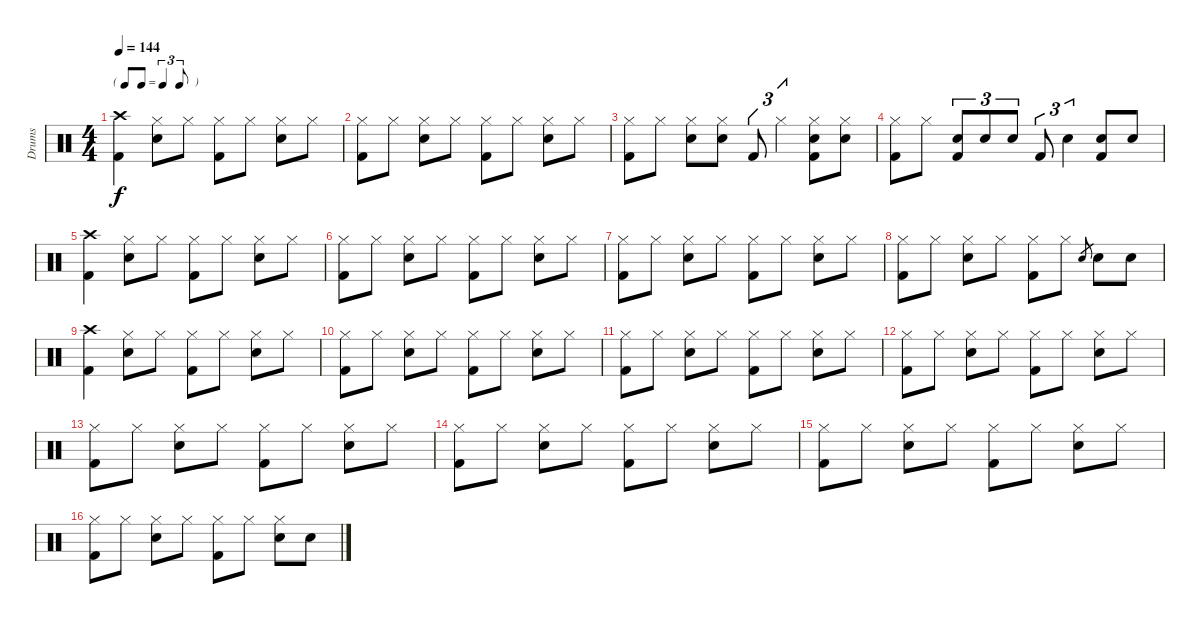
\track ("Drums" "Drums") {instrument percussion}
\staff {score}
\articulation defaults
\ts (4 4)
\tf triplet8th
\tempo 144
\clef neutral
\ks c
("Crash high (hit)" "Kick (hit) 2").4{dy f} ("Hi-Hat (closed)" "Electric Snare (hit)").8 "Hi-Hat (closed)".8 ("Hi-Hat (closed)" "Kick (hit) 2").8 "Hi-Hat (closed)".8 ("Hi-Hat (closed)" "Electric Snare (hit)").8 "Hi-Hat (closed)".8 |
("Hi-Hat (closed)" "Kick (hit) 2").8 "Hi-Hat (closed)".8 ("Hi-Hat (closed)" "Electric Snare (hit)").8 "Hi-Hat (closed)".8 ("Hi-Hat (closed)" "Kick (hit) 2").8 "Hi-Hat (closed)".8 ("Hi-Hat (closed)" "Electric Snare (hit)").8 "Hi-Hat (closed)".8 |
("Hi-Hat (closed)" "Kick (hit) 2").8 "Hi-Hat (closed)".8 ("Hi-Hat (closed)" "Electric Snare (hit)").8 ("Hi-Hat (closed)" "Electric Snare (hit)").8 "Kick (hit) 2".8{tu (3 2)} "Hi-Hat (closed)".4{tu (3 2)} ("Hi-Hat (closed)" "Electric Snare (hit)" "Kick (hit) 2").8 ("Hi-Hat (closed)" "Electric Snare (hit)").8 |
("Hi-Hat (closed)" "Kick (hit) 2").8 "Hi-Hat (closed)".8 ("Electric Snare (hit)" "Kick (hit) 2").8{tu (3 2)} "Electric Snare (hit)".8{tu (3 2)} "Electric Snare (hit)".8{tu (3 2)} "Kick (hit) 2".8{tu (3 2)} "Electric Snare (hit)".4{tu (3 2)} ("Electric Snare (hit)" "Kick (hit) 2").8 "Electric Snare (hit)".8 |
("Crash high (hit)" "Kick (hit) 2").4 ("Hi-Hat (closed)" "Electric Snare (hit)").8 "Hi-Hat (closed)".8 ("Hi-Hat (closed)" "Kick (hit) 2").8 "Hi-Hat (closed)".8 ("Hi-Hat (closed)" "Electric Snare (hit)").8 "Hi-Hat (closed)".8 |
("Hi-Hat (closed)" "Kick (hit) 2").8 "Hi-Hat (closed)".8 ("Hi-Hat (closed)" "Electric Snare (hit)").8 "Hi-Hat (closed)".8 ("Hi-Hat (closed)" "Kick (hit) 2").8 "Hi-Hat (closed)".8 ("Hi-Hat (closed)" "Electric Snare (hit)").8 "Hi-Hat (closed)".8 |
("Hi-Hat (closed)" "Kick (hit) 2").8 "Hi-Hat (closed)".8 ("Hi-Hat (closed)" "Electric Snare (hit)").8 "Hi-Hat (closed)".8 ("Hi-Hat (closed)" "Kick (hit) 2").8 "Hi-Hat (closed)".8 ("Hi-Hat (closed)" "Electric Snare (hit)").8 "Hi-Hat (closed)".8 |
("Hi-Hat (closed)" "Kick (hit) 2").8 "Hi-Hat (closed)".8 ("Hi-Hat (closed)" "Electric Snare (hit)").8 "Hi-Hat (closed)".8 ("Hi-Hat (closed)" "Kick (hit) 2").8 "Hi-Hat (closed)".8 "Electric Snare (hit)".8{gr} "Electric Snare (hit)".8 "Electric Snare (hit)".8 |
("Crash high (hit)" "Kick (hit) 2").4 ("Hi-Hat (closed)" "Electric Snare (hit)").8 "Hi-Hat (closed)".8 ("Hi-Hat (closed)" "Kick (hit) 2").8 "Hi-Hat (closed)".8 ("Hi-Hat (closed)" "Electric Snare (hit)").8 "Hi-Hat (closed)".8 |
("Hi-Hat (closed)" "Kick (hit) 2").8 "Hi-Hat (closed)".8 ("Hi-Hat (closed)" "Electric Snare (hit)").8 "Hi-Hat (closed)".8 ("Hi-Hat (closed)" "Kick (hit) 2").8 "Hi-Hat (closed)".8 ("Hi-Hat (closed)" "Electric Snare (hit)").8 "Hi-Hat (closed)".8 |
("Hi-Hat (closed)" "Kick (hit) 2").8 "Hi-Hat (closed)".8 ("Hi-Hat (closed)" "Electric Snare (hit)").8 "Hi-Hat (closed)".8 ("Hi-Hat (closed)" "Kick (hit) 2").8 "Hi-Hat (closed)".8 ("Hi-Hat (closed)" "Electric Snare (hit)").8 "Hi-Hat (closed)".8 |
("Hi-Hat (closed)" "Kick (hit) 2").8 "Hi-Hat (closed)".8 ("Hi-Hat (closed)" "Electric Snare (hit)").8 "Hi-Hat (closed)".8 ("Hi-Hat (closed)" "Kick (hit) 2").8 "Hi-Hat (closed)".8 ("Hi-Hat (closed)" "Electric Snare (hit)").8 "Hi-Hat (closed)".8 |
("Hi-Hat (closed)" "Kick (hit) 2").8 "Hi-Hat (closed)".8 ("Hi-Hat (closed)" "Electric Snare (hit)").8 "Hi-Hat (closed)".8 ("Hi-Hat (closed)" "Kick (hit) 2").8 "Hi-Hat (closed)".8 ("Hi-Hat (closed)" "Electric Snare (hit)").8 "Hi-Hat (closed)".8 |
("Hi-Hat (closed)" "Kick (hit) 2").8 "Hi-Hat (closed)".8 ("Hi-Hat (closed)" "Electric Snare (hit)").8 "Hi-Hat (closed)".8 ("Hi-Hat (closed)" "Kick (hit) 2").8 "Hi-Hat (closed)".8 ("Hi-Hat (closed)" "Electric Snare (hit)").8 "Hi-Hat (closed)".8 |
("Hi-Hat (closed)" "Kick (hit) 2").8 "Hi-Hat (closed)".8 ("Hi-Hat (closed)" "Electric Snare (hit)").8 "Hi-Hat (closed)".8 ("Hi-Hat (closed)" "Kick (hit) 2").8 "Hi-Hat (closed)".8 ("Hi-Hat (closed)" "Electric Snare (hit)").8 "Hi-Hat (closed)".8 |
("Hi-Hat (closed)" "Kick (hit) 2").8 "Hi-Hat (closed)".8 ("Hi-Hat (closed)" "Electric Snare (hit)").8 "Hi-Hat (closed)".8 ("Hi-Hat (closed)" "Kick (hit) 2").8 "Hi-Hat (closed)".8 ("Hi-Hat (closed)" "Electric Snare (hit)").8 "Electric Snare (hit)".8
